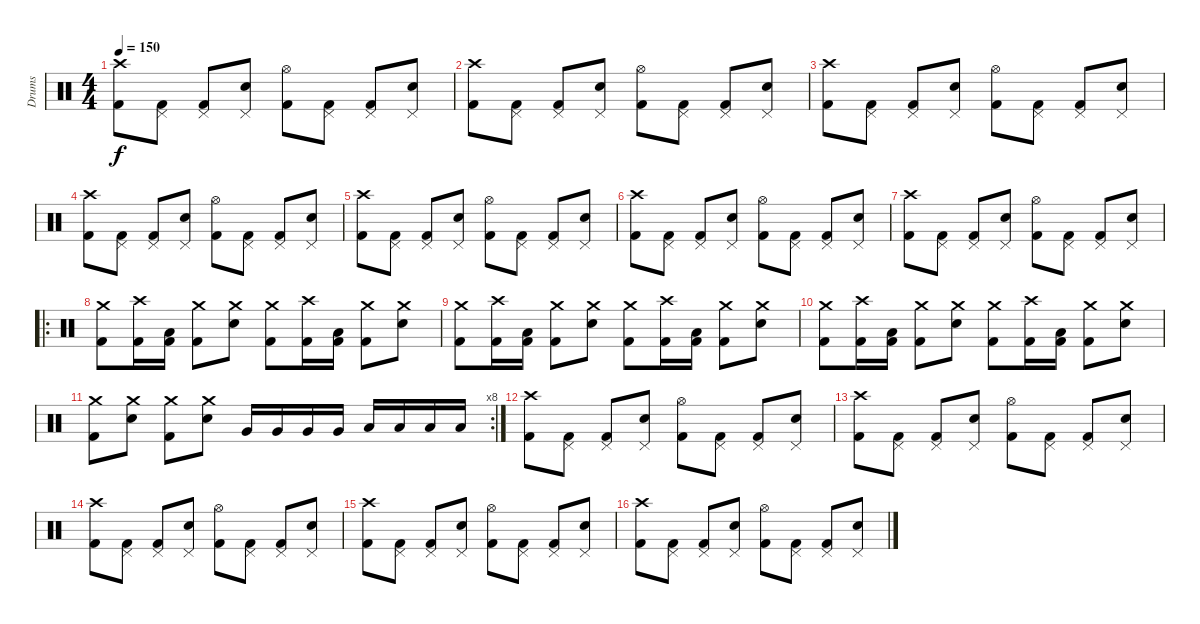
\track ("Drums" "Drums") {instrument percussion}
\staff {score}
\articulation defaults
\ts (4 4)
\tempo 150
\clef neutral
\ks c
("Crash high (hit)" "Kick (hit) 2").8{dy f} ("Pedal Hi-Hat (hit)" "Kick (hit) 2").8 ("Pedal Hi-Hat (hit)" "Kick (hit) 2").8 ("Pedal Hi-Hat (hit)" "Electric Snare (hit)").8 ("Hi-Hat (open)" "Kick (hit) 2").8 ("Pedal Hi-Hat (hit)" "Kick (hit) 2").8 ("Pedal Hi-Hat (hit)" "Kick (hit) 2").8 ("Pedal Hi-Hat (hit)" "Electric Snare (hit)").8 |
("Crash high (hit)" "Kick (hit) 2").8 ("Pedal Hi-Hat (hit)" "Kick (hit) 2").8 ("Pedal Hi-Hat (hit)" "Kick (hit) 2").8 ("Pedal Hi-Hat (hit)" "Electric Snare (hit)").8 ("Hi-Hat (open)" "Kick (hit) 2").8 ("Pedal Hi-Hat (hit)" "Kick (hit) 2").8 ("Pedal Hi-Hat (hit)" "Kick (hit) 2").8 ("Pedal Hi-Hat (hit)" "Electric Snare (hit)").8 |
("Crash high (hit)" "Kick (hit) 2").8 ("Pedal Hi-Hat (hit)" "Kick (hit) 2").8 ("Pedal Hi-Hat (hit)" "Kick (hit) 2").8 ("Pedal Hi-Hat (hit)" "Electric Snare (hit)").8 ("Hi-Hat (open)" "Kick (hit) 2").8 ("Pedal Hi-Hat (hit)" "Kick (hit) 2").8 ("Pedal Hi-Hat (hit)" "Kick (hit) 2").8 ("Pedal Hi-Hat (hit)" "Electric Snare (hit)").8 |
("Crash high (hit)" "Kick (hit) 2").8 ("Pedal Hi-Hat (hit)" "Kick (hit) 2").8 ("Pedal Hi-Hat (hit)" "Kick (hit) 2").8 ("Pedal Hi-Hat (hit)" "Electric Snare (hit)").8 ("Hi-Hat (open)" "Kick (hit) 2").8 ("Pedal Hi-Hat (hit)" "Kick (hit) 2").8 ("Pedal Hi-Hat (hit)" "Kick (hit) 2").8 ("Pedal Hi-Hat (hit)" "Electric Snare (hit)").8 |
("Crash high (hit)" "Kick (hit) 2").8 ("Pedal Hi-Hat (hit)" "Kick (hit) 2").8 ("Pedal Hi-Hat (hit)" "Kick (hit) 2").8 ("Pedal Hi-Hat (hit)" "Electric Snare (hit)").8 ("Hi-Hat (open)" "Kick (hit) 2").8 ("Pedal Hi-Hat (hit)" "Kick (hit) 2").8 ("Pedal Hi-Hat (hit)" "Kick (hit) 2").8 ("Pedal Hi-Hat (hit)" "Electric Snare (hit)").8 |
("Crash high (hit)" "Kick (hit) 2").8 ("Pedal Hi-Hat (hit)" "Kick (hit) 2").8 ("Pedal Hi-Hat (hit)" "Kick (hit) 2").8 ("Pedal Hi-Hat (hit)" "Electric Snare (hit)").8 ("Hi-Hat (open)" "Kick (hit) 2").8 ("Pedal Hi-Hat (hit)" "Kick (hit) 2").8 ("Pedal Hi-Hat (hit)" "Kick (hit) 2").8 ("Pedal Hi-Hat (hit)" "Electric Snare (hit)").8 |
("Crash high (hit)" "Kick (hit) 2").8 ("Pedal Hi-Hat (hit)" "Kick (hit) 2").8 ("Pedal Hi-Hat (hit)" "Kick (hit) 2").8 ("Pedal Hi-Hat (hit)" "Electric Snare (hit)").8 ("Hi-Hat (open)" "Kick (hit) 2").8 ("Pedal Hi-Hat (hit)" "Kick (hit) 2").8 ("Pedal Hi-Hat (hit)" "Kick (hit) 2").8 ("Pedal Hi-Hat (hit)" "Electric Snare (hit)").8 |
\ro
("Crash medium (hit)" "Kick (hit) 2").8 ("Crash high (hit)" "Kick (hit) 2").16 ("Low Tom (hit)" "Kick (hit) 2").16 ("Crash medium (hit)" "Kick (hit) 2").8 ("Crash medium (hit)" "Electric Snare (hit)").8 ("Crash medium (hit)" "Kick (hit) 2").8 ("Crash high (hit)" "Kick (hit) 2").16 ("Low Tom (hit)" "Kick (hit) 2").16 ("Crash medium (hit)" "Kick (hit) 2").8 ("Crash medium (hit)" "Electric Snare (hit)").8 |
("Crash medium (hit)" "Kick (hit) 2").8 ("Crash high (hit)" "Kick (hit) 2").16 ("Low Tom (hit)" "Kick (hit) 2").16 ("Crash medium (hit)" "Kick (hit) 2").8 ("Crash medium (hit)" "Electric Snare (hit)").8 ("Crash medium (hit)" "Kick (hit) 2").8 ("Crash high (hit)" "Kick (hit) 2").16 ("Low Tom (hit)" "Kick (hit) 2").16 ("Crash medium (hit)" "Kick (hit) 2").8 ("Crash medium (hit)" "Electric Snare (hit)").8 |
("Crash medium (hit)" "Kick (hit) 2").8 ("Crash high (hit)" "Kick (hit) 2").16 ("Low Tom (hit)" "Kick (hit) 2").16 ("Crash medium (hit)" "Kick (hit) 2").8 ("Crash medium (hit)" "Electric Snare (hit)").8 ("Crash medium (hit)" "Kick (hit) 2").8 ("Crash high (hit)" "Kick (hit) 2").16 ("Low Tom (hit)" "Kick (hit) 2").16 ("Crash medium (hit)" "Kick (hit) 2").8 ("Crash medium (hit)" "Electric Snare (hit)").8 |
\rc 8
("Crash medium (hit)" "Kick (hit) 2").8 ("Crash medium (hit)" "Electric Snare (hit)").8 ("Crash medium (hit)" "Kick (hit) 2").8 ("Crash medium (hit)" "Electric Snare (hit)").8 "Very Low Tom (hit)".16 "Very Low Tom (hit)".16 "Very Low Tom (hit)".16 "Very Low Tom (hit)".16 "Low Tom (hit)".16 "Low Tom (hit)".16 "Low Tom (hit)".16 "Low Tom (hit)".16 |
("Crash high (hit)" "Kick (hit) 2").8 ("Pedal Hi-Hat (hit)" "Kick (hit) 2").8 ("Pedal Hi-Hat (hit)" "Kick (hit) 2").8 ("Pedal Hi-Hat (hit)" "Electric Snare (hit)").8 ("Hi-Hat (open)" "Kick (hit) 2").8 ("Pedal Hi-Hat (hit)" "Kick (hit) 2").8 ("Pedal Hi-Hat (hit)" "Kick (hit) 2").8 ("Pedal Hi-Hat (hit)" "Electric Snare (hit)").8 |
("Crash high (hit)" "Kick (hit) 2").8 ("Pedal Hi-Hat (hit)" "Kick (hit) 2").8 ("Pedal Hi-Hat (hit)" "Kick (hit) 2").8 ("Pedal Hi-Hat (hit)" "Electric Snare (hit)").8 ("Hi-Hat (open)" "Kick (hit) 2").8 ("Pedal Hi-Hat (hit)" "Kick (hit) 2").8 ("Pedal Hi-Hat (hit)" "Kick (hit) 2").8 ("Pedal Hi-Hat (hit)" "Electric Snare (hit)").8 |
("Crash high (hit)" "Kick (hit) 2").8 ("Pedal Hi-Hat (hit)" "Kick (hit) 2").8 ("Pedal Hi-Hat (hit)" "Kick (hit) 2").8 ("Pedal Hi-Hat (hit)" "Electric Snare (hit)").8 ("Hi-Hat (open)" "Kick (hit) 2").8 ("Pedal Hi-Hat (hit)" "Kick (hit) 2").8 ("Pedal Hi-Hat (hit)" "Kick (hit) 2").8 ("Pedal Hi-Hat (hit)" "Electric Snare (hit)").8 |
("Crash high (hit)" "Kick (hit) 2").8 ("Pedal Hi-Hat (hit)" "Kick (hit) 2").8 ("Pedal Hi-Hat (hit)" "Kick (hit) 2").8 ("Pedal Hi-Hat (hit)" "Electric Snare (hit)").8 ("Hi-Hat (open)" "Kick (hit) 2").8 ("Pedal Hi-Hat (hit)" "Kick (hit) 2").8 ("Pedal Hi-Hat (hit)" "Kick (hit) 2").8 ("Pedal Hi-Hat (hit)" "Electric Snare (hit)").8 |
("Crash high (hit)" "Kick (hit) 2").8 ("Pedal Hi-Hat (hit)" "Kick (hit) 2").8 ("Pedal Hi-Hat (hit)" "Kick (hit) 2").8 ("Pedal Hi-Hat (hit)" "Electric Snare (hit)").8 ("Hi-Hat (open)" "Kick (hit) 2").8 ("Pedal Hi-Hat (hit)" "Kick (hit) 2").8 ("Pedal Hi-Hat (hit)" "Kick (hit) 2").8 ("Pedal Hi-Hat (hit)" "Electric Snare (hit)").8
